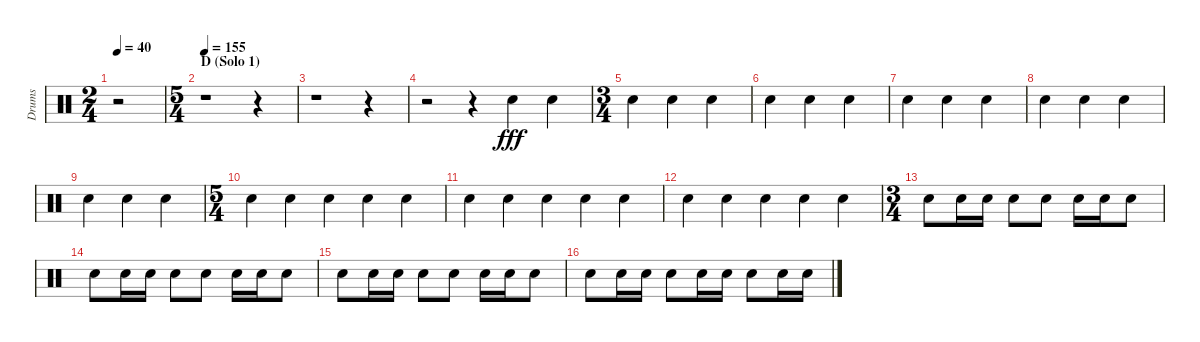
\track ("Drums" "Drums") {instrument percussion}
\staff {score}
\articulation defaults
\ts (2 4)
\tempo 40
\clef neutral
\ks c
r.2{dy fff} |
\ts (5 4)
\section ("" "D (Solo 1)")
\tempo 155
r.1 r.4 |
r.1 r.4 |
r.2 r.4 "Hand Clap (hit)".4 "Hand Clap (hit)".4 |
\ts (3 4)
"Hand Clap (hit)".4 "Hand Clap (hit)".4 "Hand Clap (hit)".4 |
"Hand Clap (hit)".4 "Hand Clap (hit)".4 "Hand Clap (hit)".4 |
"Hand Clap (hit)".4 "Hand Clap (hit)".4 "Hand Clap (hit)".4 |
"Hand Clap (hit)".4 "Hand Clap (hit)".4 "Hand Clap (hit)".4 |
"Hand Clap (hit)".4 "Hand Clap (hit)".4 "Hand Clap (hit)".4 |
\ts (5 4)
"Hand Clap (hit)".4 "Hand Clap (hit)".4 "Hand Clap (hit)".4 "Hand Clap (hit)".4 "Hand Clap (hit)".4 |
"Hand Clap (hit)".4 "Hand Clap (hit)".4 "Hand Clap (hit)".4 "Hand Clap (hit)".4 "Hand Clap (hit)".4 |
"Hand Clap (hit)".4 "Hand Clap (hit)".4 "Hand Clap (hit)".4 "Hand Clap (hit)".4 "Hand Clap (hit)".4 |
\ts (3 4)
"Hand Clap (hit)".8 "Hand Clap (hit)".16 "Hand Clap (hit)".16 "Hand Clap (hit)".8 "Hand Clap (hit)".8 "Hand Clap (hit)".16 "Hand Clap (hit)".16 "Hand Clap (hit)".8 |
"Hand Clap (hit)".8 "Hand Clap (hit)".16 "Hand Clap (hit)".16 "Hand Clap (hit)".8 "Hand Clap (hit)".8 "Hand Clap (hit)".16 "Hand Clap (hit)".16 "Hand Clap (hit)".8 |
"Hand Clap (hit)".8 "Hand Clap (hit)".16 "Hand Clap (hit)".16 "Hand Clap (hit)".8 "Hand Clap (hit)".8 "Hand Clap (hit)".16 "Hand Clap (hit)".16 "Hand Clap (hit)".8 |
"Hand Clap (hit)".8 "Hand Clap (hit)".16 "Hand Clap (hit)".16 "Hand Clap (hit)".8 "Hand Clap (hit)".16 "Hand Clap (hit)".16 "Hand Clap (hit)".8 "Hand Clap (hit)".16 "Hand Clap (hit)".16
